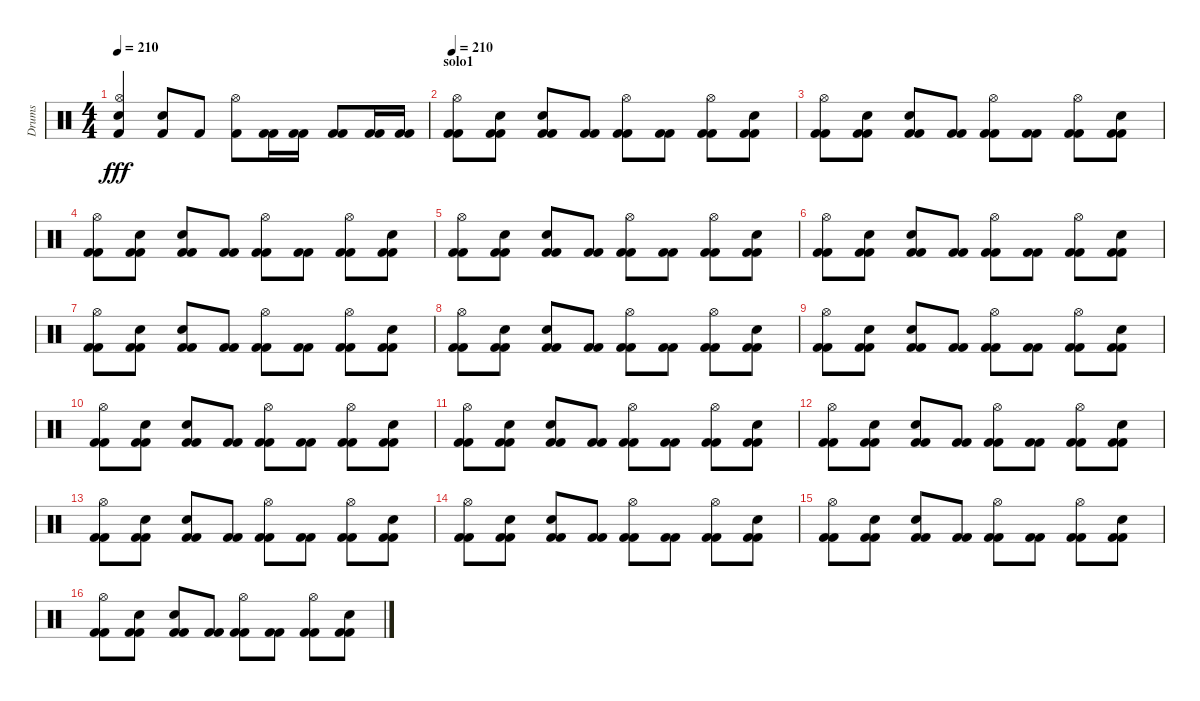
\track ("Drums" "Drums") {instrument percussion}
\staff {score}
\articulation defaults
\ts (4 4)
\tempo 210
\clef neutral
\ks c
("Electric Snare (hit)" "Hi-Hat (open)" "Kick (hit) 2").4{dy fff} ("Electric Snare (hit)" "Kick (hit) 2").8 "Kick (hit) 2".8 ("Hi-Hat (open)" "Kick (hit) 2").8 ("Kick (hit) 2" "Kick (hit) 2").16 ("Kick (hit) 2" "Kick (hit) 2").16 ("Kick (hit) 2" "Kick (hit) 2").8 ("Kick (hit) 2" "Kick (hit) 2").16 ("Kick (hit) 2" "Kick (hit) 2").16 |
\section ("" "solo1")
\tempo 210
("Hi-Hat (open)" "Kick (hit) 2" "Kick (hit) 2").8 ("Electric Snare (hit)" "Kick (hit) 2" "Kick (hit) 2").8 ("Electric Snare (hit)" "Kick (hit) 2" "Kick (hit) 2").8 ("Kick (hit) 2" "Kick (hit) 2").8 ("Hi-Hat (open)" "Kick (hit) 2" "Kick (hit) 2").8 ("Kick (hit) 2" "Kick (hit) 2").8 ("Hi-Hat (open)" "Kick (hit) 2" "Kick (hit) 2").8 ("Electric Snare (hit)" "Kick (hit) 2" "Kick (hit) 2").8 |
("Hi-Hat (open)" "Kick (hit) 2" "Kick (hit) 2").8 ("Electric Snare (hit)" "Kick (hit) 2" "Kick (hit) 2").8 ("Electric Snare (hit)" "Kick (hit) 2" "Kick (hit) 2").8 ("Kick (hit) 2" "Kick (hit) 2").8 ("Hi-Hat (open)" "Kick (hit) 2" "Kick (hit) 2").8 ("Kick (hit) 2" "Kick (hit) 2").8 ("Hi-Hat (open)" "Kick (hit) 2" "Kick (hit) 2").8 ("Electric Snare (hit)" "Kick (hit) 2" "Kick (hit) 2").8 |
("Hi-Hat (open)" "Kick (hit) 2" "Kick (hit) 2").8 ("Electric Snare (hit)" "Kick (hit) 2" "Kick (hit) 2").8 ("Electric Snare (hit)" "Kick (hit) 2" "Kick (hit) 2").8 ("Kick (hit) 2" "Kick (hit) 2").8 ("Hi-Hat (open)" "Kick (hit) 2" "Kick (hit) 2").8 ("Kick (hit) 2" "Kick (hit) 2").8 ("Hi-Hat (open)" "Kick (hit) 2" "Kick (hit) 2").8 ("Electric Snare (hit)" "Kick (hit) 2" "Kick (hit) 2").8 |
("Hi-Hat (open)" "Kick (hit) 2" "Kick (hit) 2").8 ("Electric Snare (hit)" "Kick (hit) 2" "Kick (hit) 2").8 ("Electric Snare (hit)" "Kick (hit) 2" "Kick (hit) 2").8 ("Kick (hit) 2" "Kick (hit) 2").8 ("Hi-Hat (open)" "Kick (hit) 2" "Kick (hit) 2").8 ("Kick (hit) 2" "Kick (hit) 2").8 ("Hi-Hat (open)" "Kick (hit) 2" "Kick (hit) 2").8 ("Electric Snare (hit)" "Kick (hit) 2" "Kick (hit) 2").8 |
("Hi-Hat (open)" "Kick (hit) 2" "Kick (hit) 2").8 ("Electric Snare (hit)" "Kick (hit) 2" "Kick (hit) 2").8 ("Electric Snare (hit)" "Kick (hit) 2" "Kick (hit) 2").8 ("Kick (hit) 2" "Kick (hit) 2").8 ("Hi-Hat (open)" "Kick (hit) 2" "Kick (hit) 2").8 ("Kick (hit) 2" "Kick (hit) 2").8 ("Hi-Hat (open)" "Kick (hit) 2" "Kick (hit) 2").8 ("Electric Snare (hit)" "Kick (hit) 2" "Kick (hit) 2").8 |
("Hi-Hat (open)" "Kick (hit) 2" "Kick (hit) 2").8 ("Electric Snare (hit)" "Kick (hit) 2" "Kick (hit) 2").8 ("Electric Snare (hit)" "Kick (hit) 2" "Kick (hit) 2").8 ("Kick (hit) 2" "Kick (hit) 2").8 ("Hi-Hat (open)" "Kick (hit) 2" "Kick (hit) 2").8 ("Kick (hit) 2" "Kick (hit) 2").8 ("Hi-Hat (open)" "Kick (hit) 2" "Kick (hit) 2").8 ("Electric Snare (hit)" "Kick (hit) 2" "Kick (hit) 2").8 |
("Hi-Hat (open)" "Kick (hit) 2" "Kick (hit) 2").8 ("Electric Snare (hit)" "Kick (hit) 2" "Kick (hit) 2").8 ("Electric Snare (hit)" "Kick (hit) 2" "Kick (hit) 2").8 ("Kick (hit) 2" "Kick (hit) 2").8 ("Hi-Hat (open)" "Kick (hit) 2" "Kick (hit) 2").8 ("Kick (hit) 2" "Kick (hit) 2").8 ("Hi-Hat (open)" "Kick (hit) 2" "Kick (hit) 2").8 ("Electric Snare (hit)" "Kick (hit) 2" "Kick (hit) 2").8 |
("Hi-Hat (open)" "Kick (hit) 2" "Kick (hit) 2").8 ("Electric Snare (hit)" "Kick (hit) 2" "Kick (hit) 2").8 ("Electric Snare (hit)" "Kick (hit) 2" "Kick (hit) 2").8 ("Kick (hit) 2" "Kick (hit) 2").8 ("Hi-Hat (open)" "Kick (hit) 2" "Kick (hit) 2").8 ("Kick (hit) 2" "Kick (hit) 2").8 ("Hi-Hat (open)" "Kick (hit) 2" "Kick (hit) 2").8 ("Electric Snare (hit)" "Kick (hit) 2" "Kick (hit) 2").8 |
("Hi-Hat (open)" "Kick (hit) 2" "Kick (hit) 2").8 ("Electric Snare (hit)" "Kick (hit) 2" "Kick (hit) 2").8 ("Electric Snare (hit)" "Kick (hit) 2" "Kick (hit) 2").8 ("Kick (hit) 2" "Kick (hit) 2").8 ("Hi-Hat (open)" "Kick (hit) 2" "Kick (hit) 2").8 ("Kick (hit) 2" "Kick (hit) 2").8 ("Hi-Hat (open)" "Kick (hit) 2" "Kick (hit) 2").8 ("Electric Snare (hit)" "Kick (hit) 2" "Kick (hit) 2").8 |
("Hi-Hat (open)" "Kick (hit) 2" "Kick (hit) 2").8 ("Electric Snare (hit)" "Kick (hit) 2" "Kick (hit) 2").8 ("Electric Snare (hit)" "Kick (hit) 2" "Kick (hit) 2").8 ("Kick (hit) 2" "Kick (hit) 2").8 ("Hi-Hat (open)" "Kick (hit) 2" "Kick (hit) 2").8 ("Kick (hit) 2" "Kick (hit) 2").8 ("Hi-Hat (open)" "Kick (hit) 2" "Kick (hit) 2").8 ("Electric Snare (hit)" "Kick (hit) 2" "Kick (hit) 2").8 |
("Hi-Hat (open)" "Kick (hit) 2" "Kick (hit) 2").8 ("Electric Snare (hit)" "Kick (hit) 2" "Kick (hit) 2").8 ("Electric Snare (hit)" "Kick (hit) 2" "Kick (hit) 2").8 ("Kick (hit) 2" "Kick (hit) 2").8 ("Hi-Hat (open)" "Kick (hit) 2" "Kick (hit) 2").8 ("Kick (hit) 2" "Kick (hit) 2").8 ("Hi-Hat (open)" "Kick (hit) 2" "Kick (hit) 2").8 ("Electric Snare (hit)" "Kick (hit) 2" "Kick (hit) 2").8 |
("Hi-Hat (open)" "Kick (hit) 2" "Kick (hit) 2").8 ("Electric Snare (hit)" "Kick (hit) 2" "Kick (hit) 2").8 ("Electric Snare (hit)" "Kick (hit) 2" "Kick (hit) 2").8 ("Kick (hit) 2" "Kick (hit) 2").8 ("Hi-Hat (open)" "Kick (hit) 2" "Kick (hit) 2").8 ("Kick (hit) 2" "Kick (hit) 2").8 ("Hi-Hat (open)" "Kick (hit) 2" "Kick (hit) 2").8 ("Electric Snare (hit)" "Kick (hit) 2" "Kick (hit) 2").8 |
("Hi-Hat (open)" "Kick (hit) 2" "Kick (hit) 2").8 ("Electric Snare (hit)" "Kick (hit) 2" "Kick (hit) 2").8 ("Electric Snare (hit)" "Kick (hit) 2" "Kick (hit) 2").8 ("Kick (hit) 2" "Kick (hit) 2").8 ("Hi-Hat (open)" "Kick (hit) 2" "Kick (hit) 2").8 ("Kick (hit) 2" "Kick (hit) 2").8 ("Hi-Hat (open)" "Kick (hit) 2" "Kick (hit) 2").8 ("Electric Snare (hit)" "Kick (hit) 2" "Kick (hit) 2").8 |
("Hi-Hat (open)" "Kick (hit) 2" "Kick (hit) 2").8 ("Electric Snare (hit)" "Kick (hit) 2" "Kick (hit) 2").8 ("Electric Snare (hit)" "Kick (hit) 2" "Kick (hit) 2").8 ("Kick (hit) 2" "Kick (hit) 2").8 ("Hi-Hat (open)" "Kick (hit) 2" "Kick (hit) 2").8 ("Kick (hit) 2" "Kick (hit) 2").8 ("Hi-Hat (open)" "Kick (hit) 2" "Kick (hit) 2").8 ("Electric Snare (hit)" "Kick (hit) 2" "Kick (hit) 2").8 |
("Hi-Hat (open)" "Kick (hit) 2" "Kick (hit) 2").8 ("Electric Snare (hit)" "Kick (hit) 2" "Kick (hit) 2").8 ("Electric Snare (hit)" "Kick (hit) 2" "Kick (hit) 2").8 ("Kick (hit) 2" "Kick (hit) 2").8 ("Hi-Hat (open)" "Kick (hit) 2" "Kick (hit) 2").8 ("Kick (hit) 2" "Kick (hit) 2").8 ("Hi-Hat (open)" "Kick (hit) 2" "Kick (hit) 2").8 ("Electric Snare (hit)" "Kick (hit) 2" "Kick (hit) 2").8
